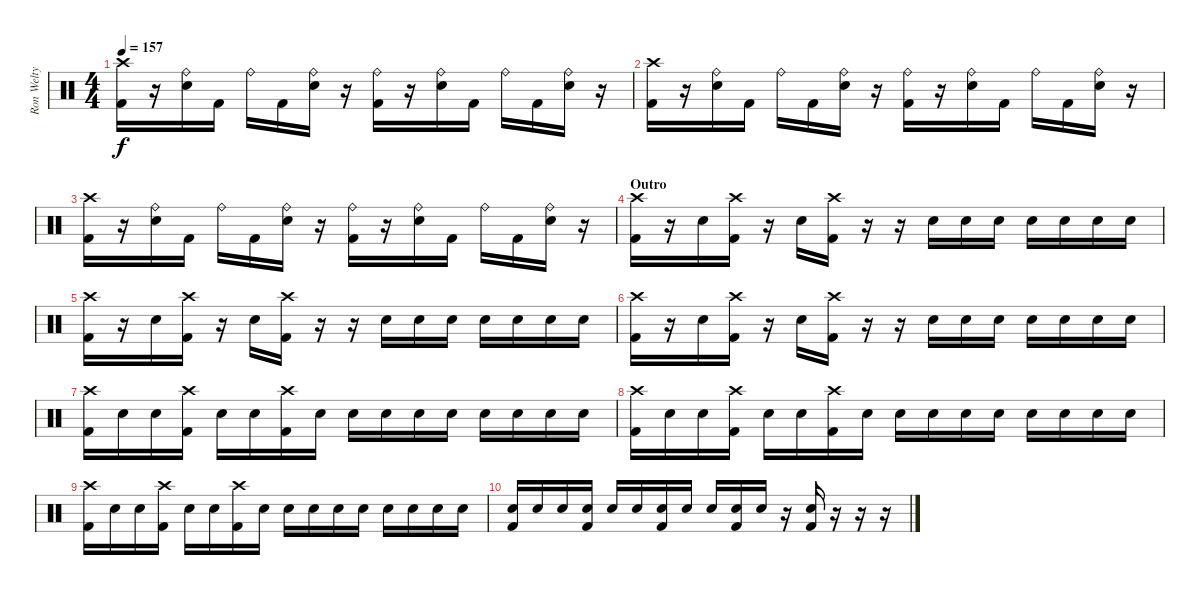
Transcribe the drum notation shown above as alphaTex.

\track ("Ron Welty - Drums" "Ron Welty ") {instrument percussion}
\staff {score}
\articulation defaults
\ts (4 4)
\tempo 157
\clef neutral
\ks c
("Crash high (hit)" "Kick (hit) 2").16{dy f} r.16 ("Ride (bell)" "Snare (hit) 2").16 "Kick (hit) 2".16 "Ride (bell)".16 "Kick (hit) 2".16 ("Ride (bell)" "Snare (hit) 2").16 r.16 ("Ride (bell)" "Kick (hit) 2").16 r.16 ("Ride (bell)" "Snare (hit) 2").16 "Kick (hit) 2".16 "Ride (bell)".16 "Kick (hit) 2".16 ("Ride (bell)" "Snare (hit) 2").16 r.16 |
("Crash high (hit)" "Kick (hit) 2").16 r.16 ("Ride (bell)" "Snare (hit) 2").16 "Kick (hit) 2".16 "Ride (bell)".16 "Kick (hit) 2".16 ("Ride (bell)" "Snare (hit) 2").16 r.16 ("Ride (bell)" "Kick (hit) 2").16 r.16 ("Ride (bell)" "Snare (hit) 2").16 "Kick (hit) 2".16 "Ride (bell)".16 "Kick (hit) 2".16 ("Ride (bell)" "Snare (hit) 2").16 r.16 |
("Crash high (hit)" "Kick (hit) 2").16 r.16 ("Ride (bell)" "Snare (hit) 2").16 "Kick (hit) 2".16 "Ride (bell)".16 "Kick (hit) 2".16 ("Ride (bell)" "Snare (hit) 2").16 r.16 ("Ride (bell)" "Kick (hit) 2").16 r.16 ("Ride (bell)" "Snare (hit) 2").16 "Kick (hit) 2".16 "Ride (bell)".16 "Kick (hit) 2".16 ("Ride (bell)" "Snare (hit) 2").16 r.16 |
\section ("" "Outro")
("Crash high (hit)" "Kick (hit) 2").16 r.16 "Snare (hit) 2".16 ("Crash high (hit)" "Kick (hit) 2").16 r.16 "Snare (hit) 2".16 ("Crash high (hit)" "Kick (hit) 2").16 r.16 r.16 "Snare (hit) 2".16 "Snare (hit) 2".16 "Snare (hit) 2".16 "Snare (hit) 2".16 "Snare (hit) 2".16 "Snare (hit) 2".16 "Snare (hit) 2".16 |
("Crash high (hit)" "Kick (hit) 2").16 r.16 "Snare (hit) 2".16 ("Crash high (hit)" "Kick (hit) 2").16 r.16 "Snare (hit) 2".16 ("Crash high (hit)" "Kick (hit) 2").16 r.16 r.16 "Snare (hit) 2".16 "Snare (hit) 2".16 "Snare (hit) 2".16 "Snare (hit) 2".16 "Snare (hit) 2".16 "Snare (hit) 2".16 "Snare (hit) 2".16 |
("Crash high (hit)" "Kick (hit) 2").16 r.16 "Snare (hit) 2".16 ("Crash high (hit)" "Kick (hit) 2").16 r.16 "Snare (hit) 2".16 ("Crash high (hit)" "Kick (hit) 2").16 r.16 r.16 "Snare (hit) 2".16 "Snare (hit) 2".16 "Snare (hit) 2".16 "Snare (hit) 2".16 "Snare (hit) 2".16 "Snare (hit) 2".16 "Snare (hit) 2".16 |
("Crash high (hit)" "Kick (hit) 2").16 "Snare (hit) 2".16 "Snare (hit) 2".16 ("Crash high (hit)" "Kick (hit) 2").16 "Snare (hit) 2".16 "Snare (hit) 2".16 ("Crash high (hit)" "Kick (hit) 2").16 "Snare (hit) 2".16 "Snare (hit) 2".16 "Snare (hit) 2".16 "Snare (hit) 2".16 "Snare (hit) 2".16 "Snare (hit) 2".16 "Snare (hit) 2".16 "Snare (hit) 2".16 "Snare (hit) 2".16 |
("Crash high (hit)" "Kick (hit) 2").16 "Snare (hit) 2".16 "Snare (hit) 2".16 ("Crash high (hit)" "Kick (hit) 2").16 "Snare (hit) 2".16 "Snare (hit) 2".16 ("Crash high (hit)" "Kick (hit) 2").16 "Snare (hit) 2".16 "Snare (hit) 2".16 "Snare (hit) 2".16 "Snare (hit) 2".16 "Snare (hit) 2".16 "Snare (hit) 2".16 "Snare (hit) 2".16 "Snare (hit) 2".16 "Snare (hit) 2".16 |
("Crash high (hit)" "Kick (hit) 2").16 "Snare (hit) 2".16 "Snare (hit) 2".16 ("Crash high (hit)" "Kick (hit) 2").16 "Snare (hit) 2".16 "Snare (hit) 2".16 ("Crash high (hit)" "Kick (hit) 2").16 "Snare (hit) 2".16 "Snare (hit) 2".16 "Snare (hit) 2".16 "Snare (hit) 2".16 "Snare (hit) 2".16 "Snare (hit) 2".16 "Snare (hit) 2".16 "Snare (hit) 2".16 "Snare (hit) 2".16 |
("Snare (hit) 2" "Kick (hit) 2").16 "Snare (hit) 2".16 "Snare (hit) 2".16 ("Snare (hit) 2" "Kick (hit) 2").16 "Snare (hit) 2".16 "Snare (hit) 2".16 ("Snare (hit) 2" "Kick (hit) 2").16 "Snare (hit) 2".16 "Snare (hit) 2".16 ("Snare (hit) 2" "Kick (hit) 2").16 "Snare (hit) 2".16 r.16 ("Snare (hit) 2" "Kick (hit) 2").16 r.16 r.16 r.16
